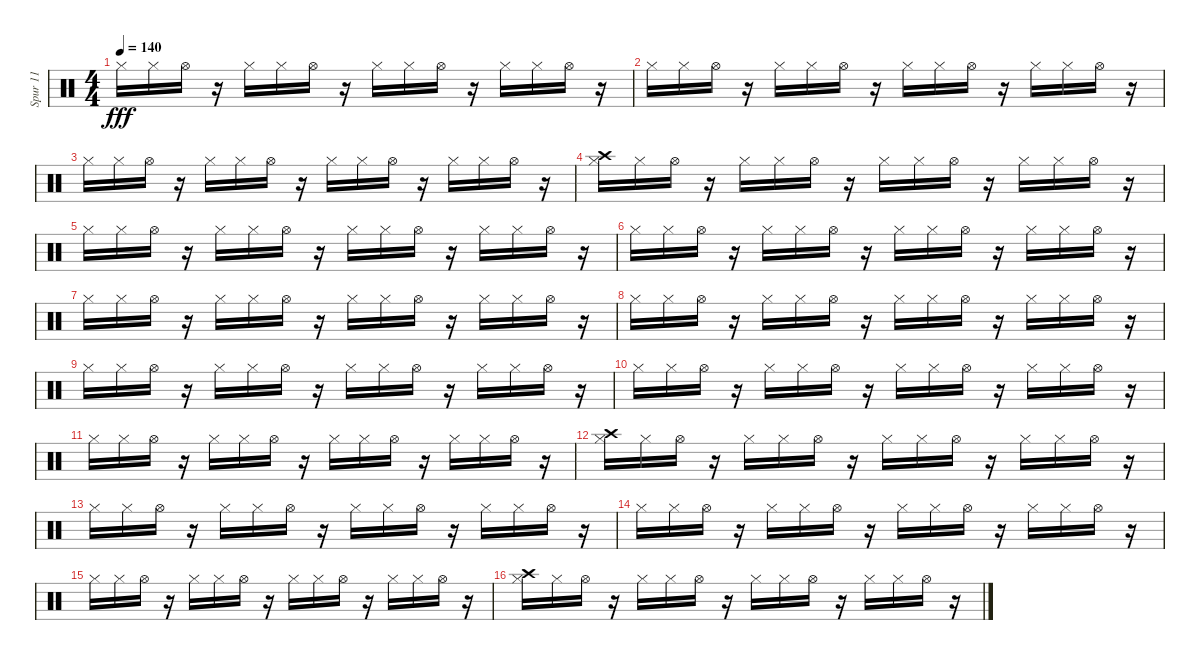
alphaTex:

\track ("Spur 11" "Spur 11") {instrument percussion}
\staff {score}
\articulation defaults
\ts (4 4)
\tempo 140
\clef neutral
\ks c "Hi-Hat (closed)".16{dy fff} "Hi-Hat (closed)".16 "Hi-Hat (open)".16
r.16 "Hi-Hat (closed)".16 "Hi-Hat (closed)".16 "Hi-Hat (open)".16 r.16 "Hi-Hat (closed)".16 "Hi-Hat (closed)".16 "Hi-Hat (open)".16 r.16 "Hi-Hat (closed)".16 "Hi-Hat (closed)".16 "Hi-Hat (open)".16 r.16 |
"Hi-Hat (closed)".16 "Hi-Hat (closed)".16 "Hi-Hat (open)".16 r.16 "Hi-Hat (closed)".16 "Hi-Hat (closed)".16 "Hi-Hat (open)".16 r.16 "Hi-Hat (closed)".16 "Hi-Hat (closed)".16 "Hi-Hat (open)".16 r.16 "Hi-Hat (closed)".16 "Hi-Hat (closed)".16 "Hi-Hat (open)".16 r.16 |
"Hi-Hat (closed)".16 "Hi-Hat (closed)".16 "Hi-Hat (open)".16 r.16 "Hi-Hat (closed)".16 "Hi-Hat (closed)".16 "Hi-Hat (open)".16 r.16 "Hi-Hat (closed)".16 "Hi-Hat (closed)".16 "Hi-Hat (open)".16 r.16 "Hi-Hat (closed)".16 "Hi-Hat (closed)".16 "Hi-Hat (open)".16 r.16 |
("Hi-Hat (closed)" "Crash high (hit)").16 "Hi-Hat (closed)".16 "Hi-Hat (open)".16 r.16 "Hi-Hat (closed)".16 "Hi-Hat (closed)".16 "Hi-Hat (open)".16 r.16 "Hi-Hat (closed)".16 "Hi-Hat (closed)".16 "Hi-Hat (open)".16 r.16 "Hi-Hat (closed)".16 "Hi-Hat (closed)".16 "Hi-Hat (open)".16 r.16 |
"Hi-Hat (closed)".16 "Hi-Hat (closed)".16 "Hi-Hat (open)".16 r.16 "Hi-Hat (closed)".16 "Hi-Hat (closed)".16 "Hi-Hat (open)".16 r.16 "Hi-Hat (closed)".16 "Hi-Hat (closed)".16 "Hi-Hat (open)".16 r.16 "Hi-Hat (closed)".16 "Hi-Hat (closed)".16 "Hi-Hat (open)".16 r.16 |
"Hi-Hat (closed)".16 "Hi-Hat (closed)".16 "Hi-Hat (open)".16 r.16 "Hi-Hat (closed)".16 "Hi-Hat (closed)".16 "Hi-Hat (open)".16 r.16 "Hi-Hat (closed)".16 "Hi-Hat (closed)".16 "Hi-Hat (open)".16 r.16 "Hi-Hat (closed)".16 "Hi-Hat (closed)".16 "Hi-Hat (open)".16 r.16 |
"Hi-Hat (closed)".16 "Hi-Hat (closed)".16 "Hi-Hat (open)".16 r.16 "Hi-Hat (closed)".16 "Hi-Hat (closed)".16 "Hi-Hat (open)".16 r.16 "Hi-Hat (closed)".16 "Hi-Hat (closed)".16 "Hi-Hat (open)".16 r.16 "Hi-Hat (closed)".16 "Hi-Hat (closed)".16 "Hi-Hat (open)".16 r.16 |
"Hi-Hat (closed)".16 "Hi-Hat (closed)".16 "Hi-Hat (open)".16 r.16 "Hi-Hat (closed)".16 "Hi-Hat (closed)".16 "Hi-Hat (open)".16 r.16 "Hi-Hat (closed)".16 "Hi-Hat (closed)".16 "Hi-Hat (open)".16 r.16 "Hi-Hat (closed)".16 "Hi-Hat (closed)".16 "Hi-Hat (open)".16 r.16 |
"Hi-Hat (closed)".16 "Hi-Hat (closed)".16 "Hi-Hat (open)".16 r.16 "Hi-Hat (closed)".16 "Hi-Hat (closed)".16 "Hi-Hat (open)".16 r.16 "Hi-Hat (closed)".16 "Hi-Hat (closed)".16 "Hi-Hat (open)".16 r.16 "Hi-Hat (closed)".16 "Hi-Hat (closed)".16 "Hi-Hat (open)".16 r.16 |
"Hi-Hat (closed)".16 "Hi-Hat (closed)".16 "Hi-Hat (open)".16 r.16 "Hi-Hat (closed)".16 "Hi-Hat (closed)".16 "Hi-Hat (open)".16 r.16 "Hi-Hat (closed)".16 "Hi-Hat (closed)".16 "Hi-Hat (open)".16 r.16 "Hi-Hat (closed)".16 "Hi-Hat (closed)".16 "Hi-Hat (open)".16 r.16 |
"Hi-Hat (closed)".16 "Hi-Hat (closed)".16 "Hi-Hat (open)".16 r.16 "Hi-Hat (closed)".16 "Hi-Hat (closed)".16 "Hi-Hat (open)".16 r.16 "Hi-Hat (closed)".16 "Hi-Hat (closed)".16 "Hi-Hat (open)".16 r.16 "Hi-Hat (closed)".16 "Hi-Hat (closed)".16 "Hi-Hat (open)".16 r.16 |
("Hi-Hat (closed)" "Crash high (hit)").16 "Hi-Hat (closed)".16 "Hi-Hat (open)".16 r.16 "Hi-Hat (closed)".16 "Hi-Hat (closed)".16 "Hi-Hat (open)".16 r.16 "Hi-Hat (closed)".16 "Hi-Hat (closed)".16 "Hi-Hat (open)".16 r.16 "Hi-Hat (closed)".16 "Hi-Hat (closed)".16 "Hi-Hat (open)".16 r.16 |
"Hi-Hat (closed)".16 "Hi-Hat (closed)".16 "Hi-Hat (open)".16 r.16 "Hi-Hat (closed)".16 "Hi-Hat (closed)".16 "Hi-Hat (open)".16 r.16 "Hi-Hat (closed)".16 "Hi-Hat (closed)".16 "Hi-Hat (open)".16 r.16 "Hi-Hat (closed)".16 "Hi-Hat (closed)".16 "Hi-Hat (open)".16 r.16 |
"Hi-Hat (closed)".16 "Hi-Hat (closed)".16 "Hi-Hat (open)".16 r.16 "Hi-Hat (closed)".16 "Hi-Hat (closed)".16 "Hi-Hat (open)".16 r.16 "Hi-Hat (closed)".16 "Hi-Hat (closed)".16 "Hi-Hat (open)".16 r.16 "Hi-Hat (closed)".16 "Hi-Hat (closed)".16 "Hi-Hat (open)".16 r.16 |
"Hi-Hat (closed)".16 "Hi-Hat (closed)".16 "Hi-Hat (open)".16 r.16 "Hi-Hat (closed)".16 "Hi-Hat (closed)".16 "Hi-Hat (open)".16 r.16 "Hi-Hat (closed)".16 "Hi-Hat (closed)".16 "Hi-Hat (open)".16 r.16 "Hi-Hat (closed)".16 "Hi-Hat (closed)".16 "Hi-Hat (open)".16 r.16 |
("Hi-Hat (closed)" "Crash high (hit)").16 "Hi-Hat (closed)".16 "Hi-Hat (open)".16 r.16 "Hi-Hat (closed)".16 "Hi-Hat (closed)".16 "Hi-Hat (open)".16 r.16 "Hi-Hat (closed)".16 "Hi-Hat (closed)".16 "Hi-Hat (open)".16 r.16 "Hi-Hat (closed)".16 "Hi-Hat (closed)".16 "Hi-Hat (open)".16 r.16
